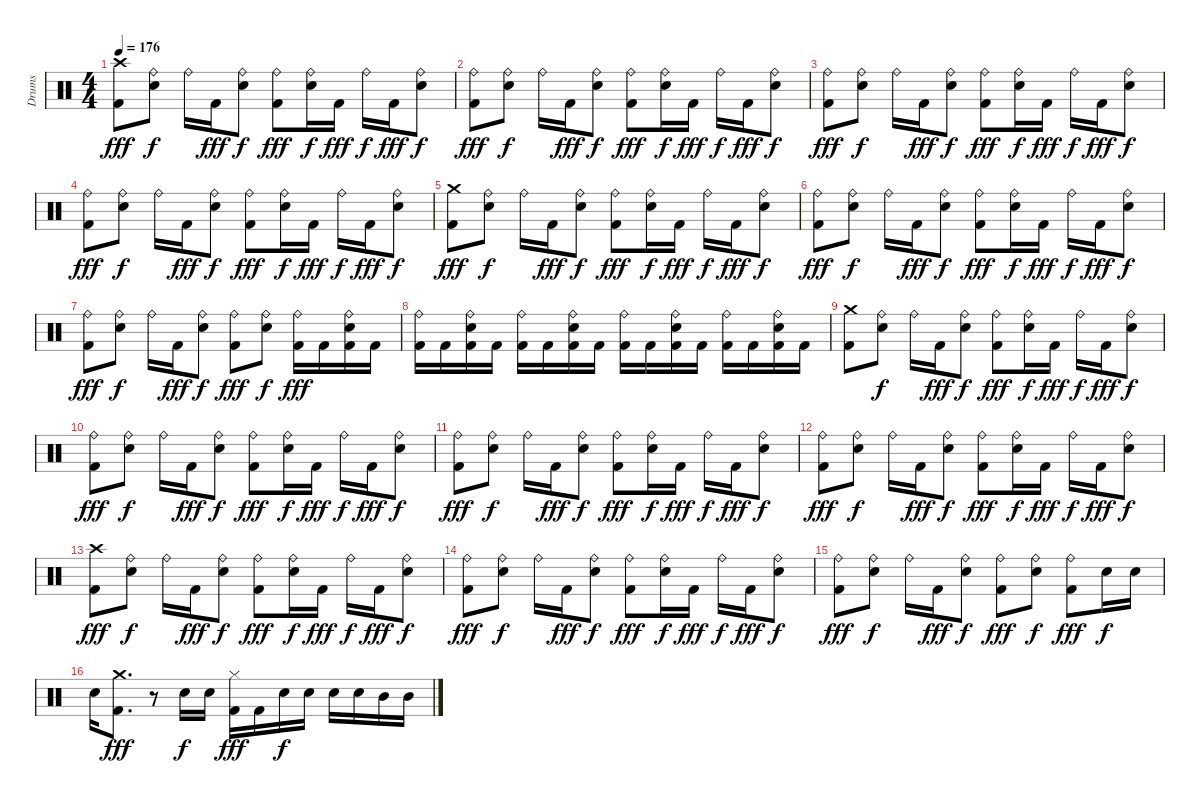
\track ("Drums" "Drums") {instrument percussion}
\staff {score}
\articulation defaults
\ts (4 4)
\tempo 176
\clef neutral
\ks c
("Crash high (hit)" "Kick (hit) 2").8{dy fff} ("Ride (bell)" "Snare (hit) 2").8{dy f} "Ride (bell)".16 "Kick (hit) 2".16{dy fff} ("Ride (bell)" "Snare (hit) 2").8{dy f} ("Ride (bell)" "Kick (hit) 2").8{dy fff} ("Ride (bell)" "Snare (hit) 2").16{dy f} "Kick (hit) 2".16{dy fff} "Ride (bell)".16{dy f} "Kick (hit) 2".16{dy fff} ("Ride (bell)" "Snare (hit) 2").8{dy f} |
("Ride (bell)" "Kick (hit) 2").8{dy fff} ("Ride (bell)" "Snare (hit) 2").8{dy f} "Ride (bell)".16 "Kick (hit) 2".16{dy fff} ("Ride (bell)" "Snare (hit) 2").8{dy f} ("Ride (bell)" "Kick (hit) 2").8{dy fff} ("Ride (bell)" "Snare (hit) 2").16{dy f} "Kick (hit) 2".16{dy fff} "Ride (bell)".16{dy f} "Kick (hit) 2".16{dy fff} ("Ride (bell)" "Snare (hit) 2").8{dy f} |
("Ride (bell)" "Kick (hit) 2").8{dy fff} ("Ride (bell)" "Snare (hit) 2").8{dy f} "Ride (bell)".16 "Kick (hit) 2".16{dy fff} ("Ride (bell)" "Snare (hit) 2").8{dy f} ("Ride (bell)" "Kick (hit) 2").8{dy fff} ("Ride (bell)" "Snare (hit) 2").16{dy f} "Kick (hit) 2".16{dy fff} "Ride (bell)".16{dy f} "Kick (hit) 2".16{dy fff} ("Ride (bell)" "Snare (hit) 2").8{dy f} |
("Ride (bell)" "Kick (hit) 2").8{dy fff} ("Ride (bell)" "Snare (hit) 2").8{dy f} "Ride (bell)".16 "Kick (hit) 2".16{dy fff} ("Ride (bell)" "Snare (hit) 2").8{dy f} ("Ride (bell)" "Kick (hit) 2").8{dy fff} ("Ride (bell)" "Snare (hit) 2").16{dy f} "Kick (hit) 2".16{dy fff} "Ride (bell)".16{dy f} "Kick (hit) 2".16{dy fff} ("Ride (bell)" "Snare (hit) 2").8{dy f} |
("Crash medium (hit)" "Kick (hit) 2").8{dy fff} ("Ride (bell)" "Snare (hit) 2").8{dy f} "Ride (bell)".16 "Kick (hit) 2".16{dy fff} ("Ride (bell)" "Snare (hit) 2").8{dy f} ("Ride (bell)" "Kick (hit) 2").8{dy fff} ("Ride (bell)" "Snare (hit) 2").16{dy f} "Kick (hit) 2".16{dy fff} "Ride (bell)".16{dy f} "Kick (hit) 2".16{dy fff} ("Ride (bell)" "Snare (hit) 2").8{dy f} |
("Ride (bell)" "Kick (hit) 2").8{dy fff} ("Ride (bell)" "Snare (hit) 2").8{dy f} "Ride (bell)".16 "Kick (hit) 2".16{dy fff} ("Ride (bell)" "Snare (hit) 2").8{dy f} ("Ride (bell)" "Kick (hit) 2").8{dy fff} ("Ride (bell)" "Snare (hit) 2").16{dy f} "Kick (hit) 2".16{dy fff} "Ride (bell)".16{dy f} "Kick (hit) 2".16{dy fff} ("Ride (bell)" "Snare (hit) 2").8{dy f} |
("Ride (bell)" "Kick (hit) 2").8{dy fff} ("Ride (bell)" "Snare (hit) 2").8{dy f} "Ride (bell)".16 "Kick (hit) 2".16{dy fff} ("Ride (bell)" "Snare (hit) 2").8{dy f} ("Ride (bell)" "Kick (hit) 2").8{dy fff} ("Ride (bell)" "Snare (hit) 2").8{dy f} ("Ride (bell)" "Kick (hit) 2").16{dy fff} "Kick (hit) 2".16 ("Ride (bell)" "Snare (hit) 2" "Kick (hit) 2").16 "Kick (hit) 2".16 |
("Ride (bell)" "Kick (hit) 2").16 "Kick (hit) 2".16 ("Ride (bell)" "Snare (hit) 2" "Kick (hit) 2").16 "Kick (hit) 2".16 ("Ride (bell)" "Kick (hit) 2").16 "Kick (hit) 2".16 ("Ride (bell)" "Snare (hit) 2" "Kick (hit) 2").16 "Kick (hit) 2".16 ("Ride (bell)" "Kick (hit) 2").16 "Kick (hit) 2".16 ("Ride (bell)" "Snare (hit) 2" "Kick (hit) 2").16 "Kick (hit) 2".16 ("Ride (bell)" "Kick (hit) 2").16 "Kick (hit) 2".16 ("Ride (bell)" "Snare (hit) 2" "Kick (hit) 2").16 "Kick (hit) 2".16 |
("Crash medium (hit)" "Kick (hit) 2").8 ("Ride (bell)" "Snare (hit) 2").8{dy f} "Ride (bell)".16 "Kick (hit) 2".16{dy fff} ("Ride (bell)" "Snare (hit) 2").8{dy f} ("Ride (bell)" "Kick (hit) 2").8{dy fff} ("Ride (bell)" "Snare (hit) 2").16{dy f} "Kick (hit) 2".16{dy fff} "Ride (bell)".16{dy f} "Kick (hit) 2".16{dy fff} ("Ride (bell)" "Snare (hit) 2").8{dy f} |
("Ride (bell)" "Kick (hit) 2").8{dy fff} ("Ride (bell)" "Snare (hit) 2").8{dy f} "Ride (bell)".16 "Kick (hit) 2".16{dy fff} ("Ride (bell)" "Snare (hit) 2").8{dy f} ("Ride (bell)" "Kick (hit) 2").8{dy fff} ("Ride (bell)" "Snare (hit) 2").16{dy f} "Kick (hit) 2".16{dy fff} "Ride (bell)".16{dy f} "Kick (hit) 2".16{dy fff} ("Ride (bell)" "Snare (hit) 2").8{dy f} |
("Ride (bell)" "Kick (hit) 2").8{dy fff} ("Ride (bell)" "Snare (hit) 2").8{dy f} "Ride (bell)".16 "Kick (hit) 2".16{dy fff} ("Ride (bell)" "Snare (hit) 2").8{dy f} ("Ride (bell)" "Kick (hit) 2").8{dy fff} ("Ride (bell)" "Snare (hit) 2").16{dy f} "Kick (hit) 2".16{dy fff} "Ride (bell)".16{dy f} "Kick (hit) 2".16{dy fff} ("Ride (bell)" "Snare (hit) 2").8{dy f} |
("Ride (bell)" "Kick (hit) 2").8{dy fff} ("Ride (bell)" "Snare (hit) 2").8{dy f} "Ride (bell)".16 "Kick (hit) 2".16{dy fff} ("Ride (bell)" "Snare (hit) 2").8{dy f} ("Ride (bell)" "Kick (hit) 2").8{dy fff} ("Ride (bell)" "Snare (hit) 2").16{dy f} "Kick (hit) 2".16{dy fff} "Ride (bell)".16{dy f} "Kick (hit) 2".16{dy fff} ("Ride (bell)" "Snare (hit) 2").8{dy f} |
("Crash high (hit)" "Kick (hit) 2").8{dy fff} ("Ride (bell)" "Snare (hit) 2").8{dy f} "Ride (bell)".16 "Kick (hit) 2".16{dy fff} ("Ride (bell)" "Snare (hit) 2").8{dy f} ("Ride (bell)" "Kick (hit) 2").8{dy fff} ("Ride (bell)" "Snare (hit) 2").16{dy f} "Kick (hit) 2".16{dy fff} "Ride (bell)".16{dy f} "Kick (hit) 2".16{dy fff} ("Ride (bell)" "Snare (hit) 2").8{dy f} |
("Ride (bell)" "Kick (hit) 2").8{dy fff} ("Ride (bell)" "Snare (hit) 2").8{dy f} "Ride (bell)".16 "Kick (hit) 2".16{dy fff} ("Ride (bell)" "Snare (hit) 2").8{dy f} ("Ride (bell)" "Kick (hit) 2").8{dy fff} ("Ride (bell)" "Snare (hit) 2").16{dy f} "Kick (hit) 2".16{dy fff} "Ride (bell)".16{dy f} "Kick (hit) 2".16{dy fff} ("Ride (bell)" "Snare (hit) 2").8{dy f} |
("Ride (bell)" "Kick (hit) 2").8{dy fff} ("Ride (bell)" "Snare (hit) 2").8{dy f} "Ride (bell)".16 "Kick (hit) 2".16{dy fff} ("Ride (bell)" "Snare (hit) 2").8{dy f} ("Ride (bell)" "Kick (hit) 2").8{dy fff} ("Ride (bell)" "Snare (hit) 2").8{dy f} ("Ride (bell)" "Kick (hit) 2").8{dy fff} "Snare (hit) 2".16{dy f} "Snare (hit) 2".16 |
"Snare (hit) 2".16 ("Crash medium (hit)" "Kick (hit) 2").8{d dy fff} r.8 "Snare (hit) 2".16{dy f} "Snare (hit) 2".16 ("Hi-Hat (closed)" "Kick (hit) 2").16{dy fff} "Kick (hit) 2".16 "Snare (hit) 2".16{dy f} "Snare (hit) 2".16 "Snare (hit) 2".16 "Snare (hit) 2".16 "Mid Tom (hit)".16 "Mid Tom (hit)".16
